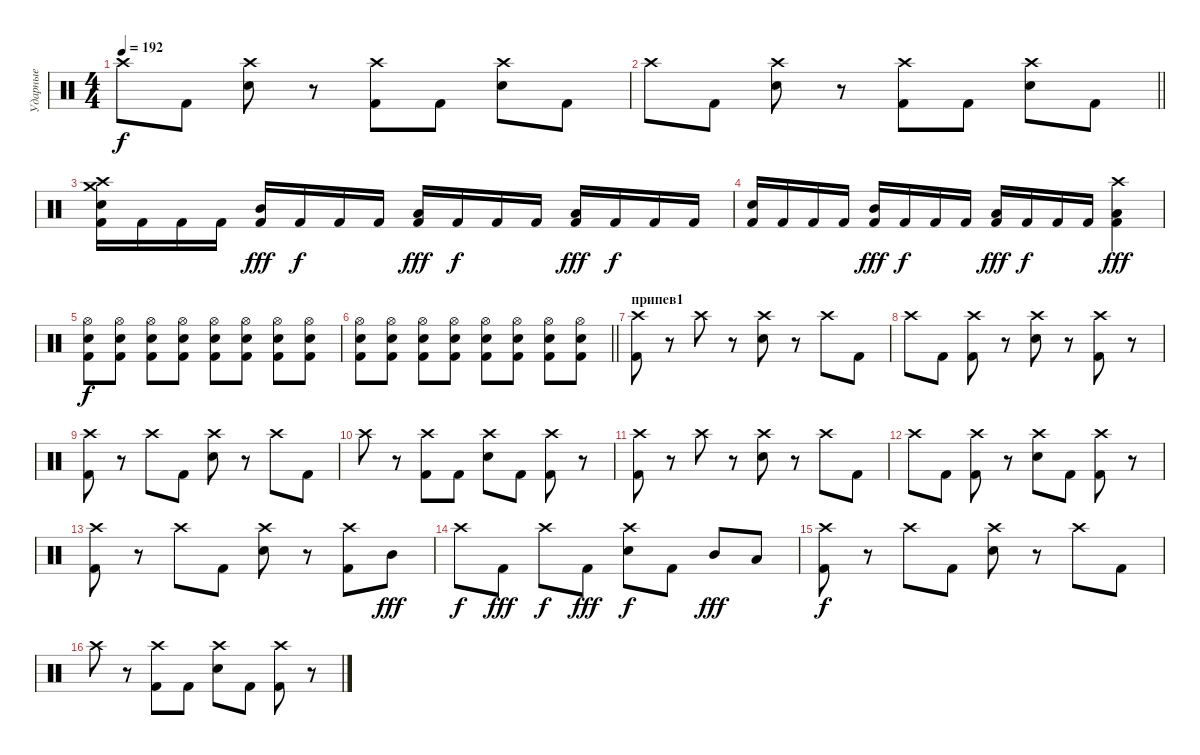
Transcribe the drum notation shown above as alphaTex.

\track ("Ударные" "Ударные") {instrument percussion}
\staff {score}
\articulation defaults
\ts (4 4)
\tempo 192
\clef neutral
\ks c "Crash high (hit)".8{dy f} "Kick (hit) 2".8
("Crash high (hit)" "Electric Snare (hit)").8 r.8 ("Crash high (hit)" "Kick (hit) 2").8 "Kick (hit) 2".8 ("Crash high (hit)" "Electric Snare (hit)").8 "Kick (hit) 2".8 |
\barLineRight lightlight "Crash high (hit)".8 "Kick (hit) 2".8
("Crash high (hit)" "Electric Snare (hit)").8 r.8 ("Crash high (hit)" "Kick (hit) 2").8 "Kick (hit) 2".8 ("Crash high (hit)" "Electric Snare (hit)").8 "Kick (hit) 2".8 |
("Crash high (hit)" "Crash medium (hit)" "Electric Snare (hit)" "Kick (hit) 2").16 "Kick (hit) 2".16 "Kick (hit) 2".16 "Kick (hit) 2".16 ("Mid Tom (hit)" "Kick (hit) 2").16{dy fff} "Kick (hit) 2".16{dy f} "Kick (hit) 2".16 "Kick (hit) 2".16 ("Low Tom (hit)" "Kick (hit) 2").16{dy fff} "Kick (hit) 2".16{dy f} "Kick (hit) 2".16 "Kick (hit) 2".16 ("Low Floor Tom (hit)" "Kick (hit) 2").16{dy fff} "Kick (hit) 2".16{dy f} "Kick (hit) 2".16 "Kick (hit) 2".16 |
("Electric Snare (hit)" "Kick (hit) 2").16 "Kick (hit) 2".16 "Kick (hit) 2".16 "Kick (hit) 2".16 ("Mid Tom (hit)" "Kick (hit) 2").16{dy fff} "Kick (hit) 2".16{dy f} "Kick (hit) 2".16 "Kick (hit) 2".16 ("Low Tom (hit)" "Kick (hit) 2").16{dy fff} "Kick (hit) 2".16{dy f} "Kick (hit) 2".16 "Kick (hit) 2".16 ("Crash high (hit)" "Low Floor Tom (hit)" "Kick (hit) 2").4{dy fff} |
("Hi-Hat (open)" "Electric Snare (hit)" "Kick (hit) 2").8{dy f} ("Hi-Hat (open)" "Electric Snare (hit)" "Kick (hit) 2").8 ("Hi-Hat (open)" "Electric Snare (hit)" "Kick (hit) 2").8 ("Hi-Hat (open)" "Electric Snare (hit)" "Kick (hit) 2").8 ("Hi-Hat (open)" "Electric Snare (hit)" "Kick (hit) 2").8 ("Hi-Hat (open)" "Electric Snare (hit)" "Kick (hit) 2").8 ("Hi-Hat (open)" "Electric Snare (hit)" "Kick (hit) 2").8 ("Hi-Hat (open)" "Electric Snare (hit)" "Kick (hit) 2").8 |
\barLineRight lightlight
("Hi-Hat (open)" "Electric Snare (hit)" "Kick (hit) 2").8 ("Hi-Hat (open)" "Electric Snare (hit)" "Kick (hit) 2").8 ("Hi-Hat (open)" "Electric Snare (hit)" "Kick (hit) 2").8 ("Hi-Hat (open)" "Electric Snare (hit)" "Kick (hit) 2").8 ("Hi-Hat (open)" "Electric Snare (hit)" "Kick (hit) 2").8 ("Hi-Hat (open)" "Electric Snare (hit)" "Kick (hit) 2").8 ("Hi-Hat (open)" "Electric Snare (hit)" "Kick (hit) 2").8 ("Hi-Hat (open)" "Electric Snare (hit)" "Kick (hit) 2").8 |
\section ("" "припев1")
("Crash high (hit)" "Kick (hit) 2").8 r.8 "Crash high (hit)".8 r.8 ("Crash high (hit)" "Electric Snare (hit)").8 r.8 "Crash high (hit)".8 "Kick (hit) 2".8 |
"Crash high (hit)".8 "Kick (hit) 2".8 ("Crash high (hit)" "Kick (hit) 2").8 r.8 ("Crash high (hit)" "Electric Snare (hit)").8 r.8 ("Crash high (hit)" "Kick (hit) 2").8 r.8 |
("Crash high (hit)" "Kick (hit) 2").8 r.8 "Crash high (hit)".8 "Kick (hit) 2".8 ("Crash high (hit)" "Electric Snare (hit)").8 r.8 "Crash high (hit)".8 "Kick (hit) 2".8 |
"Crash high (hit)".8 r.8 ("Crash high (hit)" "Kick (hit) 2").8 "Kick (hit) 2".8 ("Crash high (hit)" "Electric Snare (hit)").8 "Kick (hit) 2".8 ("Crash high (hit)" "Kick (hit) 2").8 r.8 |
("Crash high (hit)" "Kick (hit) 2").8 r.8 "Crash high (hit)".8 r.8 ("Crash high (hit)" "Electric Snare (hit)").8 r.8 "Crash high (hit)".8 "Kick (hit) 2".8 |
"Crash high (hit)".8 "Kick (hit) 2".8 ("Crash high (hit)" "Kick (hit) 2").8 r.8 ("Crash high (hit)" "Electric Snare (hit)").8 "Kick (hit) 2".8 ("Crash high (hit)" "Kick (hit) 2").8 r.8 |
("Crash high (hit)" "Kick (hit) 2").8 r.8 "Crash high (hit)".8 "Kick (hit) 2".8 ("Crash high (hit)" "Electric Snare (hit)").8 r.8 ("Crash high (hit)" "Kick (hit) 2").8 "Mid Tom (hit)".8{dy fff} |
"Crash high (hit)".8{dy f} "Kick (hit) 2".8{dy fff} "Crash high (hit)".8{dy f} "Kick (hit) 2".8{dy fff} ("Crash high (hit)" "Electric Snare (hit)").8{dy f} "Kick (hit) 2".8 "Mid Tom (hit)".8{dy fff} "Low Tom (hit)".8 |
("Crash high (hit)" "Kick (hit) 2").8{dy f} r.8 "Crash high (hit)".8 "Kick (hit) 2".8 ("Crash high (hit)" "Electric Snare (hit)").8 r.8 "Crash high (hit)".8 "Kick (hit) 2".8 |
"Crash high (hit)".8 r.8 ("Crash high (hit)" "Kick (hit) 2").8 "Kick (hit) 2".8 ("Crash high (hit)" "Electric Snare (hit)").8 "Kick (hit) 2".8 ("Crash high (hit)" "Kick (hit) 2").8 r.8
